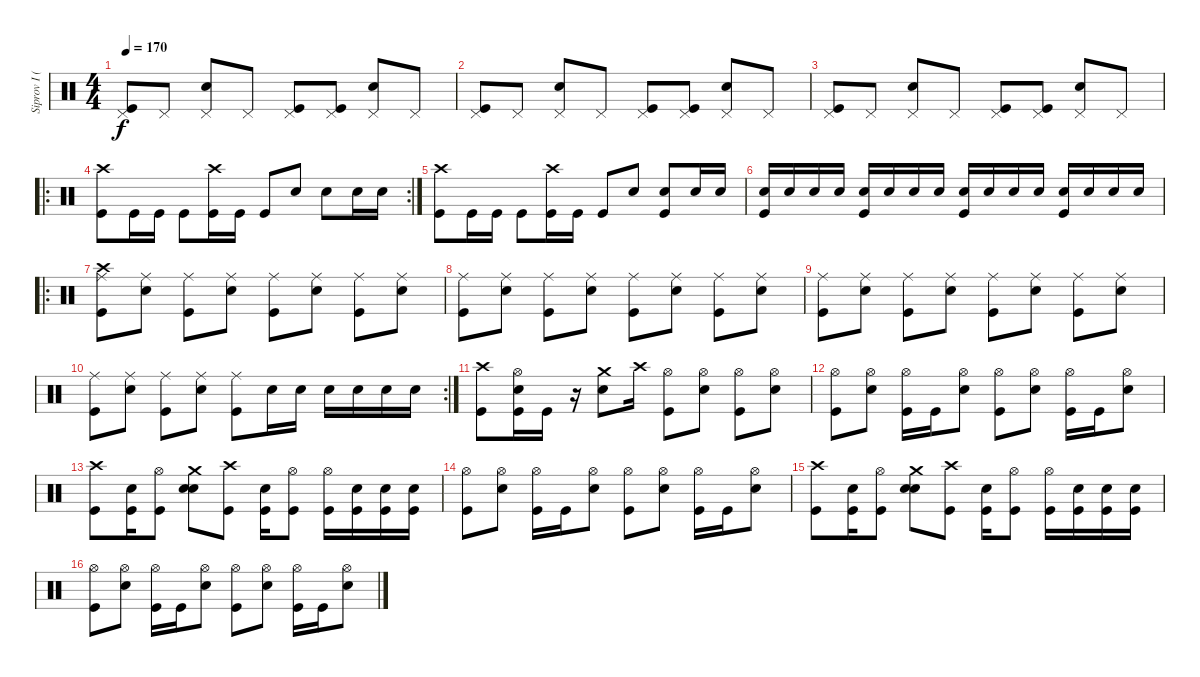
\track ("Siprov I (DRUMS)" "Siprov I (") {instrument percussion}
\staff {score}
\articulation defaults
\ts (4 4)
\tempo 170
\clef neutral
\ks c
("Pedal Hi-Hat (hit)" "Kick (hit)").8{dy f} "Pedal Hi-Hat (hit)".8 ("Pedal Hi-Hat (hit)" "Electric Snare (hit)").8 "Pedal Hi-Hat (hit)".8 ("Pedal Hi-Hat (hit)" "Kick (hit)").8 ("Pedal Hi-Hat (hit)" "Kick (hit)").8 ("Pedal Hi-Hat (hit)" "Electric Snare (hit)").8 "Pedal Hi-Hat (hit)".8 |
("Pedal Hi-Hat (hit)" "Kick (hit)").8 "Pedal Hi-Hat (hit)".8 ("Pedal Hi-Hat (hit)" "Electric Snare (hit)").8 "Pedal Hi-Hat (hit)".8 ("Pedal Hi-Hat (hit)" "Kick (hit)").8 ("Pedal Hi-Hat (hit)" "Kick (hit)").8 ("Pedal Hi-Hat (hit)" "Electric Snare (hit)").8 "Pedal Hi-Hat (hit)".8 |
("Pedal Hi-Hat (hit)" "Kick (hit)").8 "Pedal Hi-Hat (hit)".8 ("Pedal Hi-Hat (hit)" "Electric Snare (hit)").8 "Pedal Hi-Hat (hit)".8 ("Pedal Hi-Hat (hit)" "Kick (hit)").8 ("Pedal Hi-Hat (hit)" "Kick (hit)").8 ("Pedal Hi-Hat (hit)" "Electric Snare (hit)").8 "Pedal Hi-Hat (hit)".8 |
\ro
\rc 2
("Crash high (hit)" "Kick (hit)").8 "Kick (hit)".16 "Kick (hit)".16 "Kick (hit)".8 ("Crash high (hit)" "Kick (hit)").16 "Kick (hit)".16 "Kick (hit)".8 "Electric Snare (hit)".8 "Electric Snare (hit)".8 "Electric Snare (hit)".16 "Electric Snare (hit)".16 |
("Crash high (hit)" "Kick (hit)").8 "Kick (hit)".16 "Kick (hit)".16 "Kick (hit)".8 ("Crash high (hit)" "Kick (hit)").16 "Kick (hit)".16 "Kick (hit)".8 "Electric Snare (hit)".8 ("Electric Snare (hit)" "Kick (hit)").8 "Electric Snare (hit)".16 "Electric Snare (hit)".16 |
("Electric Snare (hit)" "Kick (hit)").16 "Electric Snare (hit)".16 "Electric Snare (hit)".16 "Electric Snare (hit)".16 ("Electric Snare (hit)" "Kick (hit)").16 "Electric Snare (hit)".16 "Electric Snare (hit)".16 "Electric Snare (hit)".16 ("Electric Snare (hit)" "Kick (hit)").16 "Electric Snare (hit)".16 "Electric Snare (hit)".16 "Electric Snare (hit)".16 ("Electric Snare (hit)" "Kick (hit)").16 "Electric Snare (hit)".16 "Electric Snare (hit)".16 "Electric Snare (hit)".16 |
\ro
("Ride (middle)" "Crash high (hit)" "Kick (hit)").8 ("Ride (middle)" "Electric Snare (hit)").8 ("Ride (middle)" "Kick (hit)").8 ("Ride (middle)" "Electric Snare (hit)").8 ("Ride (middle)" "Kick (hit)").8 ("Ride (middle)" "Electric Snare (hit)").8 ("Ride (middle)" "Kick (hit)").8 ("Ride (middle)" "Electric Snare (hit)").8 |
("Ride (middle)" "Kick (hit)").8 ("Ride (middle)" "Electric Snare (hit)").8 ("Ride (middle)" "Kick (hit)").8 ("Ride (middle)" "Electric Snare (hit)").8 ("Ride (middle)" "Kick (hit)").8 ("Ride (middle)" "Electric Snare (hit)").8 ("Ride (middle)" "Kick (hit)").8 ("Ride (middle)" "Electric Snare (hit)").8 |
("Ride (middle)" "Kick (hit)").8 ("Ride (middle)" "Electric Snare (hit)").8 ("Ride (middle)" "Kick (hit)").8 ("Ride (middle)" "Electric Snare (hit)").8 ("Ride (middle)" "Kick (hit)").8 ("Ride (middle)" "Electric Snare (hit)").8 ("Ride (middle)" "Kick (hit)").8 ("Ride (middle)" "Electric Snare (hit)").8 |
\rc 2
("Ride (middle)" "Kick (hit)").8 ("Ride (middle)" "Electric Snare (hit)").8 ("Ride (middle)" "Kick (hit)").8 ("Ride (middle)" "Electric Snare (hit)").8 ("Ride (middle)" "Kick (hit)").8 "Electric Snare (hit)".16 "Electric Snare (hit)".16 "Electric Snare (hit)".16 "Electric Snare (hit)".16 "Electric Snare (hit)".16 "Electric Snare (hit)".16 |
("Crash high (hit)" "Kick (hit)").8 ("Hi-Hat (open)" "Electric Snare (hit)" "Kick (hit)").16 "Kick (hit)".16 r.16 ("Crash medium (hit)" "Electric Snare (hit)").8 "Crash high (hit)".16 ("Hi-Hat (open)" "Kick (hit)").8 ("Hi-Hat (open)" "Electric Snare (hit)").8 ("Hi-Hat (open)" "Kick (hit)").8 ("Hi-Hat (open)" "Electric Snare (hit)").8 |
("Hi-Hat (open)" "Kick (hit)").8 ("Hi-Hat (open)" "Electric Snare (hit)").8 ("Hi-Hat (open)" "Kick (hit)").16 "Kick (hit)".16 ("Hi-Hat (open)" "Electric Snare (hit)").8 ("Hi-Hat (open)" "Kick (hit)").8 ("Hi-Hat (open)" "Electric Snare (hit)").8 ("Hi-Hat (open)" "Kick (hit)").16 "Kick (hit)".16 ("Hi-Hat (open)" "Electric Snare (hit)").8 |
("Crash high (hit)" "Kick (hit)").8 ("Electric Snare (hit)" "Kick (hit)").16 ("Hi-Hat (open)" "Kick (hit)").8 ("Crash medium (hit)" "Electric Snare (hit)" "Snare (hit)").8 ("Crash high (hit)" "Kick (hit)").8 ("Electric Snare (hit)" "Kick (hit)").16 ("Hi-Hat (open)" "Kick (hit)").8 ("Hi-Hat (open)" "Kick (hit)").16 ("Electric Snare (hit)" "Kick (hit)").16 ("Electric Snare (hit)" "Kick (hit)").16 ("Electric Snare (hit)" "Kick (hit)").16 |
("Hi-Hat (open)" "Kick (hit)").8 ("Hi-Hat (open)" "Electric Snare (hit)").8 ("Hi-Hat (open)" "Kick (hit)").16 "Kick (hit)".16 ("Hi-Hat (open)" "Electric Snare (hit)").8 ("Hi-Hat (open)" "Kick (hit)").8 ("Hi-Hat (open)" "Electric Snare (hit)").8 ("Hi-Hat (open)" "Kick (hit)").16 "Kick (hit)".16 ("Hi-Hat (open)" "Electric Snare (hit)").8 |
("Crash high (hit)" "Kick (hit)").8 ("Electric Snare (hit)" "Kick (hit)").16 ("Hi-Hat (open)" "Kick (hit)").8 ("Crash medium (hit)" "Electric Snare (hit)" "Snare (hit)").8 ("Crash high (hit)" "Kick (hit)").8 ("Electric Snare (hit)" "Kick (hit)").16 ("Hi-Hat (open)" "Kick (hit)").8 ("Hi-Hat (open)" "Kick (hit)").16 ("Electric Snare (hit)" "Kick (hit)").16 ("Electric Snare (hit)" "Kick (hit)").16 ("Electric Snare (hit)" "Kick (hit)").16 |
("Hi-Hat (open)" "Kick (hit)").8 ("Hi-Hat (open)" "Electric Snare (hit)").8 ("Hi-Hat (open)" "Kick (hit)").16 "Kick (hit)".16 ("Hi-Hat (open)" "Electric Snare (hit)").8 ("Hi-Hat (open)" "Kick (hit)").8 ("Hi-Hat (open)" "Electric Snare (hit)").8 ("Hi-Hat (open)" "Kick (hit)").16 "Kick (hit)".16 ("Hi-Hat (open)" "Electric Snare (hit)").8
